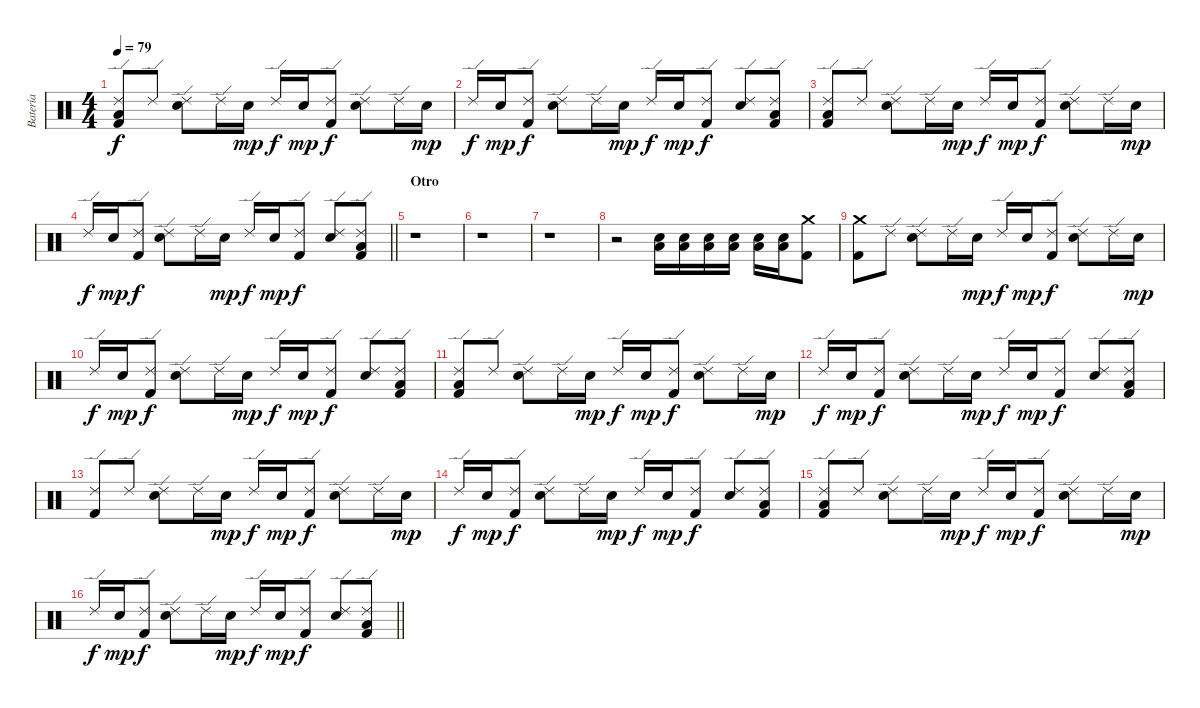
\track ("Batería" "Batería") {instrument percussion}
\staff {score}
\articulation defaults
\ts (4 4)
\tempo 79
\clef neutral
\ks c
("Ride (edge) 2" "Low Floor Tom (hit)" "Kick (hit) 2").8{dy f} "Ride (edge) 2".8 ("Ride (edge) 2" "Snare (hit) 2").8 "Ride (edge) 2".16 "Snare (hit) 2".16{dy mp} "Ride (edge) 2".16{dy f} "Snare (hit) 2".16{dy mp} ("Ride (edge) 2" "Kick (hit) 2").8{dy f} ("Ride (edge) 2" "Snare (hit) 2").8 "Ride (edge) 2".16 "Snare (hit) 2".16{dy mp} |
"Ride (edge) 2".16{dy f} "Snare (hit) 2".16{dy mp} ("Ride (edge) 2" "Kick (hit) 2").8{dy f} ("Ride (edge) 2" "Snare (hit) 2").8 "Ride (edge) 2".16 "Snare (hit) 2".16{dy mp} "Ride (edge) 2".16{dy f} "Snare (hit) 2".16{dy mp} ("Ride (edge) 2" "Kick (hit) 2").8{dy f} ("Ride (edge) 2" "Snare (hit) 2").8 ("Ride (edge) 2" "Low Floor Tom (hit)" "Kick (hit) 2").8 |
("Ride (edge) 2" "Low Floor Tom (hit)" "Kick (hit) 2").8 "Ride (edge) 2".8 ("Ride (edge) 2" "Snare (hit) 2").8 "Ride (edge) 2".16 "Snare (hit) 2".16{dy mp} "Ride (edge) 2".16{dy f} "Snare (hit) 2".16{dy mp} ("Ride (edge) 2" "Kick (hit) 2").8{dy f} ("Ride (edge) 2" "Snare (hit) 2").8 "Ride (edge) 2".16 "Snare (hit) 2".16{dy mp} |
\barLineRight lightlight "Ride (edge) 2".16{dy f} "Snare (hit) 2".16{dy mp}
("Ride (edge) 2" "Kick (hit) 2").8{dy f} ("Ride (edge) 2" "Snare (hit) 2").8 "Ride (edge) 2".16 "Snare (hit) 2".16{dy mp} "Ride (edge) 2".16{dy f} "Snare (hit) 2".16{dy mp} ("Ride (edge) 2" "Kick (hit) 2").8{dy f} ("Ride (edge) 2" "Snare (hit) 2").8 ("Ride (edge) 2" "Low Floor Tom (hit)" "Kick (hit) 2").8 |
\section ("" "Otro")
r.1 |
r.1 |
r.1 |
r.2 ("Low Floor Tom (hit)" "Snare (hit) 2").16 ("Low Floor Tom (hit)" "Snare (hit) 2").16 ("Low Floor Tom (hit)" "Snare (hit) 2").16 ("Low Floor Tom (hit)" "Snare (hit) 2").16 ("Low Floor Tom (hit)" "Snare (hit) 2").16 ("Low Floor Tom (hit)" "Snare (hit) 2").16 ("Crash medium (hit)" "Kick (hit) 2").8 |
("Crash medium (hit)" "Kick (hit) 2").8 "Ride (edge) 2".8 ("Ride (edge) 2" "Snare (hit) 2").8 "Ride (edge) 2".16 "Snare (hit) 2".16{dy mp} "Ride (edge) 2".16{dy f} "Snare (hit) 2".16{dy mp} ("Ride (edge) 2" "Kick (hit) 2").8{dy f} ("Ride (edge) 2" "Snare (hit) 2").8 "Ride (edge) 2".16 "Snare (hit) 2".16{dy mp} |
"Ride (edge) 2".16{dy f} "Snare (hit) 2".16{dy mp} ("Ride (edge) 2" "Kick (hit) 2").8{dy f} ("Ride (edge) 2" "Snare (hit) 2").8 "Ride (edge) 2".16 "Snare (hit) 2".16{dy mp} "Ride (edge) 2".16{dy f} "Snare (hit) 2".16{dy mp} ("Ride (edge) 2" "Kick (hit) 2").8{dy f} ("Ride (edge) 2" "Snare (hit) 2").8 ("Ride (edge) 2" "Low Floor Tom (hit)" "Kick (hit) 2").8 |
("Ride (edge) 2" "Low Floor Tom (hit)" "Kick (hit) 2").8 "Ride (edge) 2".8 ("Ride (edge) 2" "Snare (hit) 2").8 "Ride (edge) 2".16 "Snare (hit) 2".16{dy mp} "Ride (edge) 2".16{dy f} "Snare (hit) 2".16{dy mp} ("Ride (edge) 2" "Kick (hit) 2").8{dy f} ("Ride (edge) 2" "Snare (hit) 2").8 "Ride (edge) 2".16 "Snare (hit) 2".16{dy mp} |
"Ride (edge) 2".16{dy f} "Snare (hit) 2".16{dy mp} ("Ride (edge) 2" "Kick (hit) 2").8{dy f} ("Ride (edge) 2" "Snare (hit) 2").8 "Ride (edge) 2".16 "Snare (hit) 2".16{dy mp} "Ride (edge) 2".16{dy f} "Snare (hit) 2".16{dy mp} ("Ride (edge) 2" "Kick (hit) 2").8{dy f} ("Ride (edge) 2" "Snare (hit) 2").8 ("Ride (edge) 2" "Low Floor Tom (hit)" "Kick (hit) 2").8 |
("Ride (edge) 2" "Kick (hit) 2").8 "Ride (edge) 2".8 ("Ride (edge) 2" "Snare (hit) 2").8 "Ride (edge) 2".16 "Snare (hit) 2".16{dy mp} "Ride (edge) 2".16{dy f} "Snare (hit) 2".16{dy mp} ("Ride (edge) 2" "Kick (hit) 2").8{dy f} ("Ride (edge) 2" "Snare (hit) 2").8 "Ride (edge) 2".16 "Snare (hit) 2".16{dy mp} |
"Ride (edge) 2".16{dy f} "Snare (hit) 2".16{dy mp} ("Ride (edge) 2" "Kick (hit) 2").8{dy f} ("Ride (edge) 2" "Snare (hit) 2").8 "Ride (edge) 2".16 "Snare (hit) 2".16{dy mp} "Ride (edge) 2".16{dy f} "Snare (hit) 2".16{dy mp} ("Ride (edge) 2" "Kick (hit) 2").8{dy f} ("Ride (edge) 2" "Snare (hit) 2").8 ("Ride (edge) 2" "Low Floor Tom (hit)" "Kick (hit) 2").8 |
("Ride (edge) 2" "Low Floor Tom (hit)" "Kick (hit) 2").8 "Ride (edge) 2".8 ("Ride (edge) 2" "Snare (hit) 2").8 "Ride (edge) 2".16 "Snare (hit) 2".16{dy mp} "Ride (edge) 2".16{dy f} "Snare (hit) 2".16{dy mp} ("Ride (edge) 2" "Kick (hit) 2").8{dy f} ("Ride (edge) 2" "Snare (hit) 2").8 "Ride (edge) 2".16 "Snare (hit) 2".16{dy mp} |
\barLineRight lightlight "Ride (edge) 2".16{dy f} "Snare (hit) 2".16{dy mp}
("Ride (edge) 2" "Kick (hit) 2").8{dy f} ("Ride (edge) 2" "Snare (hit) 2").8 "Ride (edge) 2".16 "Snare (hit) 2".16{dy mp} "Ride (edge) 2".16{dy f} "Snare (hit) 2".16{dy mp} ("Ride (edge) 2" "Kick (hit) 2").8{dy f} ("Ride (edge) 2" "Snare (hit) 2").8 ("Ride (edge) 2" "Low Floor Tom (hit)" "Kick (hit) 2").8
